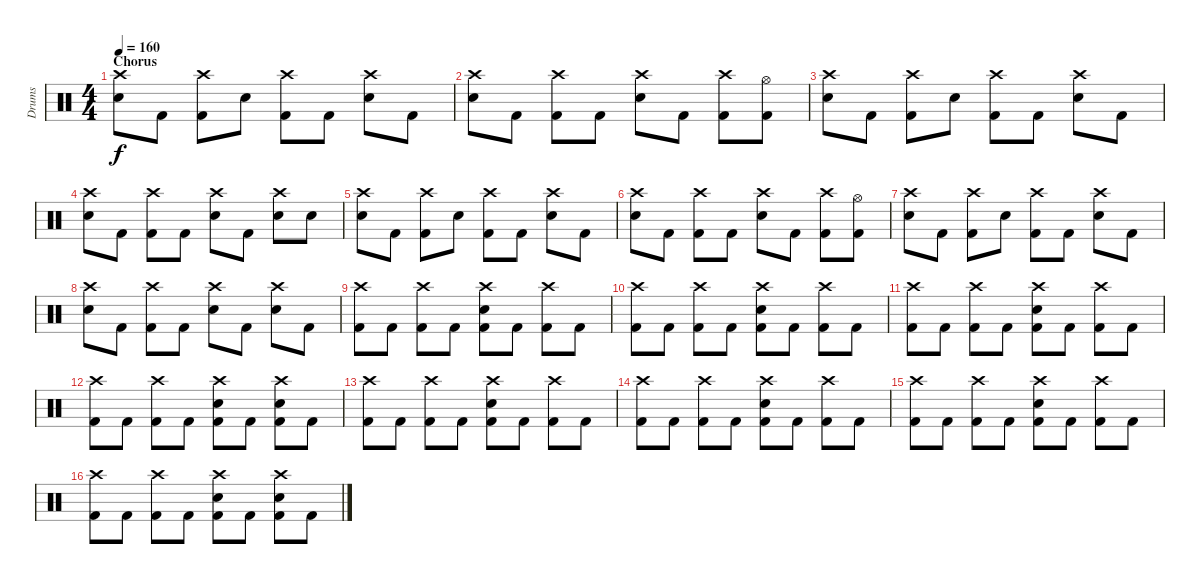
\track ("Drums" "Drums") {instrument percussion}
\staff {score}
\articulation defaults
\ts (4 4)
\section ("" "Chorus")
\tempo 160
\clef neutral
\ks c
("Crash high (hit)" "Electric Snare (hit)").8{dy f} "Kick (hit) 2".8 ("Crash high (hit)" "Kick (hit) 2").8 "Electric Snare (hit)".8 ("Crash high (hit)" "Kick (hit) 2").8 "Kick (hit) 2".8 ("Crash high (hit)" "Electric Snare (hit)").8 "Kick (hit) 2".8 |
("Crash high (hit)" "Electric Snare (hit)").8 "Kick (hit) 2".8 ("Crash high (hit)" "Kick (hit) 2").8 "Kick (hit) 2".8 ("Crash high (hit)" "Electric Snare (hit)").8 "Kick (hit) 2".8 ("Crash high (hit)" "Kick (hit) 2").8 ("Hi-Hat (open)" "Kick (hit) 2").8 |
("Crash high (hit)" "Electric Snare (hit)").8 "Kick (hit) 2".8 ("Crash high (hit)" "Kick (hit) 2").8 "Electric Snare (hit)".8 ("Crash high (hit)" "Kick (hit) 2").8 "Kick (hit) 2".8 ("Crash high (hit)" "Electric Snare (hit)").8 "Kick (hit) 2".8 |
("Crash high (hit)" "Electric Snare (hit)").8 "Kick (hit) 2".8 ("Crash high (hit)" "Kick (hit) 2").8 "Kick (hit) 2".8 ("Crash high (hit)" "Electric Snare (hit)").8 "Kick (hit) 2".8 ("Crash high (hit)" "Electric Snare (hit)").8 "Electric Snare (hit)".8 |
("Crash high (hit)" "Electric Snare (hit)").8 "Kick (hit) 2".8 ("Crash high (hit)" "Kick (hit) 2").8 "Electric Snare (hit)".8 ("Crash high (hit)" "Kick (hit) 2").8 "Kick (hit) 2".8 ("Crash high (hit)" "Electric Snare (hit)").8 "Kick (hit) 2".8 |
("Crash high (hit)" "Electric Snare (hit)").8 "Kick (hit) 2".8 ("Crash high (hit)" "Kick (hit) 2").8 "Kick (hit) 2".8 ("Crash high (hit)" "Electric Snare (hit)").8 "Kick (hit) 2".8 ("Crash high (hit)" "Kick (hit) 2").8 ("Hi-Hat (open)" "Kick (hit) 2").8 |
("Crash high (hit)" "Electric Snare (hit)").8 "Kick (hit) 2".8 ("Crash high (hit)" "Kick (hit) 2").8 "Electric Snare (hit)".8 ("Crash high (hit)" "Kick (hit) 2").8 "Kick (hit) 2".8 ("Crash high (hit)" "Electric Snare (hit)").8 "Kick (hit) 2".8 |
("Crash high (hit)" "Electric Snare (hit)").8 "Kick (hit) 2".8 ("Crash high (hit)" "Kick (hit) 2").8 "Kick (hit) 2".8 ("Crash high (hit)" "Electric Snare (hit)").8 "Kick (hit) 2".8 ("Crash high (hit)" "Electric Snare (hit)").8 "Kick (hit) 2".8 |
("Crash high (hit)" "Kick (hit) 2").8 "Kick (hit) 2".8 ("Crash high (hit)" "Kick (hit) 2").8 "Kick (hit) 2".8 ("Crash high (hit)" "Electric Snare (hit)" "Kick (hit) 2").8 "Kick (hit) 2".8 ("Crash high (hit)" "Kick (hit) 2").8 "Kick (hit) 2".8 |
("Crash high (hit)" "Kick (hit) 2").8 "Kick (hit) 2".8 ("Crash high (hit)" "Kick (hit) 2").8 "Kick (hit) 2".8 ("Crash high (hit)" "Electric Snare (hit)" "Kick (hit) 2").8 "Kick (hit) 2".8 ("Crash high (hit)" "Kick (hit) 2").8 "Kick (hit) 2".8 |
("Crash high (hit)" "Kick (hit) 2").8 "Kick (hit) 2".8 ("Crash high (hit)" "Kick (hit) 2").8 "Kick (hit) 2".8 ("Crash high (hit)" "Electric Snare (hit)" "Kick (hit) 2").8 "Kick (hit) 2".8 ("Crash high (hit)" "Kick (hit) 2").8 "Kick (hit) 2".8 |
("Crash high (hit)" "Kick (hit) 2").8 "Kick (hit) 2".8 ("Crash high (hit)" "Kick (hit) 2").8 "Kick (hit) 2".8 ("Crash high (hit)" "Electric Snare (hit)" "Kick (hit) 2").8 "Kick (hit) 2".8 ("Crash high (hit)" "Electric Snare (hit)" "Kick (hit) 2").8 "Kick (hit) 2".8 |
("Crash high (hit)" "Kick (hit) 2").8 "Kick (hit) 2".8 ("Crash high (hit)" "Kick (hit) 2").8 "Kick (hit) 2".8 ("Crash high (hit)" "Electric Snare (hit)" "Kick (hit) 2").8 "Kick (hit) 2".8 ("Crash high (hit)" "Kick (hit) 2").8 "Kick (hit) 2".8 |
("Crash high (hit)" "Kick (hit) 2").8 "Kick (hit) 2".8 ("Crash high (hit)" "Kick (hit) 2").8 "Kick (hit) 2".8 ("Crash high (hit)" "Electric Snare (hit)" "Kick (hit) 2").8 "Kick (hit) 2".8 ("Crash high (hit)" "Kick (hit) 2").8 "Kick (hit) 2".8 |
("Crash high (hit)" "Kick (hit) 2").8 "Kick (hit) 2".8 ("Crash high (hit)" "Kick (hit) 2").8 "Kick (hit) 2".8 ("Crash high (hit)" "Electric Snare (hit)" "Kick (hit) 2").8 "Kick (hit) 2".8 ("Crash high (hit)" "Kick (hit) 2").8 "Kick (hit) 2".8 |
("Crash high (hit)" "Kick (hit) 2").8 "Kick (hit) 2".8 ("Crash high (hit)" "Kick (hit) 2").8 "Kick (hit) 2".8 ("Crash high (hit)" "Electric Snare (hit)" "Kick (hit) 2").8 "Kick (hit) 2".8 ("Crash high (hit)" "Electric Snare (hit)" "Kick (hit) 2").8 "Kick (hit) 2".8
